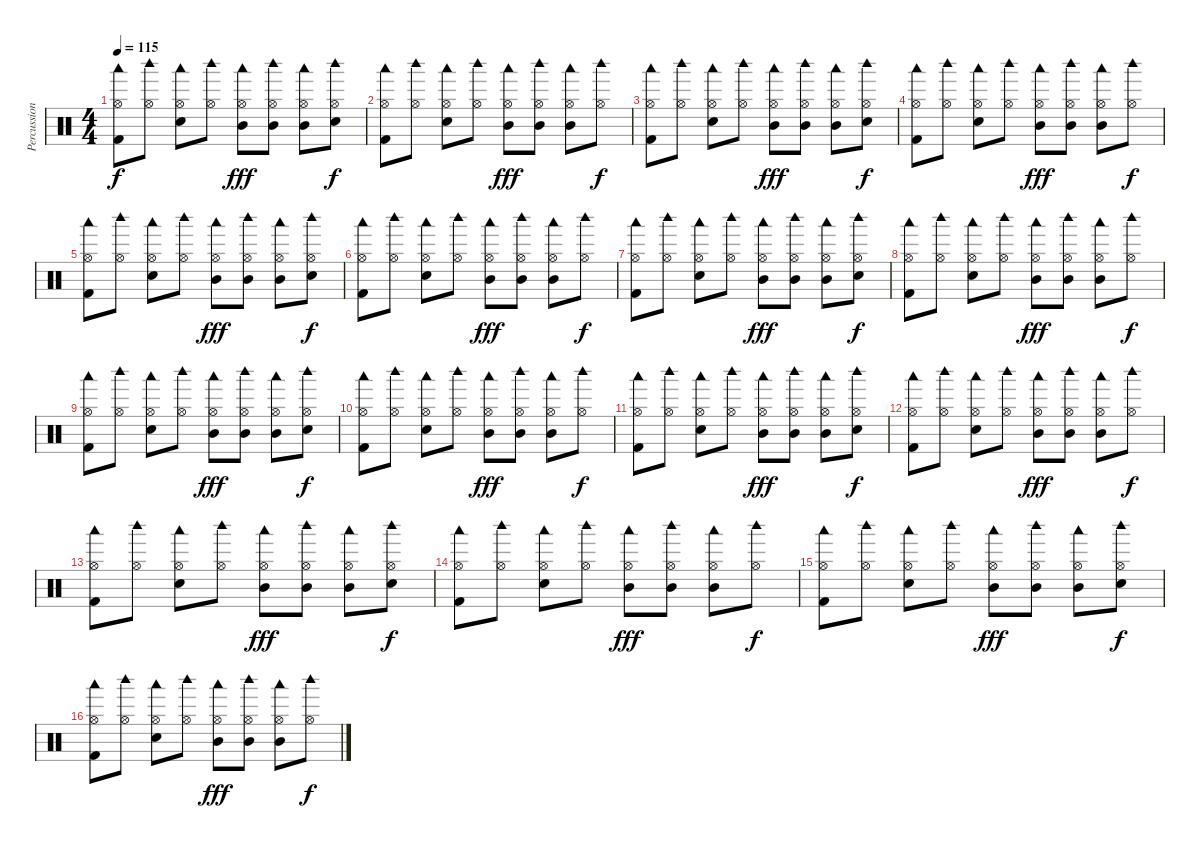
\track ("Percussions" "Percussion") {instrument percussion}
\staff {score}
\articulation defaults
\ts (4 4)
\tempo 115
\clef neutral
\ks c
("Hi-Hat (open)" "Kick (hit) 2" "Woodblock low (hit)").8{dy f} ("Hi-Hat (open)" "Woodblock high (hit)").8 ("Hi-Hat (open)" "Electric Snare (hit)" "Woodblock low (hit)").8 ("Hi-Hat (open)" "Woodblock high (hit)").8 ("Hi-Hat (open)" "Mid Tom (hit)" "Woodblock low (hit)").8{dy fff} ("Hi-Hat (open)" "Mid Tom (hit)" "Woodblock high (hit)").8 ("Hi-Hat (open)" "Mid Tom (hit)" "Woodblock low (hit)").8 ("Hi-Hat (open)" "Electric Snare (hit)" "Woodblock high (hit)").8{dy f} |
("Hi-Hat (open)" "Kick (hit) 2" "Woodblock low (hit)").8 ("Hi-Hat (open)" "Woodblock high (hit)").8 ("Hi-Hat (open)" "Electric Snare (hit)" "Woodblock low (hit)").8 ("Hi-Hat (open)" "Woodblock high (hit)").8 ("Hi-Hat (open)" "Mid Tom (hit)" "Woodblock low (hit)").8{dy fff} ("Hi-Hat (open)" "Mid Tom (hit)" "Woodblock high (hit)").8 ("Hi-Hat (open)" "Mid Tom (hit)" "Woodblock low (hit)").8 ("Hi-Hat (open)" "Woodblock high (hit)").8{dy f} |
("Hi-Hat (open)" "Kick (hit) 2" "Woodblock low (hit)").8 ("Hi-Hat (open)" "Woodblock high (hit)").8 ("Hi-Hat (open)" "Electric Snare (hit)" "Woodblock low (hit)").8 ("Hi-Hat (open)" "Woodblock high (hit)").8 ("Hi-Hat (open)" "Mid Tom (hit)" "Woodblock low (hit)").8{dy fff} ("Hi-Hat (open)" "Mid Tom (hit)" "Woodblock high (hit)").8 ("Hi-Hat (open)" "Mid Tom (hit)" "Woodblock low (hit)").8 ("Hi-Hat (open)" "Electric Snare (hit)" "Woodblock high (hit)").8{dy f} |
("Hi-Hat (open)" "Kick (hit) 2" "Woodblock low (hit)").8 ("Hi-Hat (open)" "Woodblock high (hit)").8 ("Hi-Hat (open)" "Electric Snare (hit)" "Woodblock low (hit)").8 ("Hi-Hat (open)" "Woodblock high (hit)").8 ("Hi-Hat (open)" "Mid Tom (hit)" "Woodblock low (hit)").8{dy fff} ("Hi-Hat (open)" "Mid Tom (hit)" "Woodblock high (hit)").8 ("Hi-Hat (open)" "Mid Tom (hit)" "Woodblock low (hit)").8 ("Hi-Hat (open)" "Woodblock high (hit)").8{dy f} |
("Hi-Hat (open)" "Kick (hit) 2" "Woodblock low (hit)").8 ("Hi-Hat (open)" "Woodblock high (hit)").8 ("Hi-Hat (open)" "Electric Snare (hit)" "Woodblock low (hit)").8 ("Hi-Hat (open)" "Woodblock high (hit)").8 ("Hi-Hat (open)" "Mid Tom (hit)" "Woodblock low (hit)").8{dy fff} ("Hi-Hat (open)" "Mid Tom (hit)" "Woodblock high (hit)").8 ("Hi-Hat (open)" "Mid Tom (hit)" "Woodblock low (hit)").8 ("Hi-Hat (open)" "Electric Snare (hit)" "Woodblock high (hit)").8{dy f} |
("Hi-Hat (open)" "Kick (hit) 2" "Woodblock low (hit)").8 ("Hi-Hat (open)" "Woodblock high (hit)").8 ("Hi-Hat (open)" "Electric Snare (hit)" "Woodblock low (hit)").8 ("Hi-Hat (open)" "Woodblock high (hit)").8 ("Hi-Hat (open)" "Mid Tom (hit)" "Woodblock low (hit)").8{dy fff} ("Hi-Hat (open)" "Mid Tom (hit)" "Woodblock high (hit)").8 ("Hi-Hat (open)" "Mid Tom (hit)" "Woodblock low (hit)").8 ("Hi-Hat (open)" "Woodblock high (hit)").8{dy f} |
("Hi-Hat (open)" "Kick (hit) 2" "Woodblock low (hit)").8 ("Hi-Hat (open)" "Woodblock high (hit)").8 ("Hi-Hat (open)" "Electric Snare (hit)" "Woodblock low (hit)").8 ("Hi-Hat (open)" "Woodblock high (hit)").8 ("Hi-Hat (open)" "Mid Tom (hit)" "Woodblock low (hit)").8{dy fff} ("Hi-Hat (open)" "Mid Tom (hit)" "Woodblock high (hit)").8 ("Hi-Hat (open)" "Mid Tom (hit)" "Woodblock low (hit)").8 ("Hi-Hat (open)" "Electric Snare (hit)" "Woodblock high (hit)").8{dy f} |
("Hi-Hat (open)" "Kick (hit) 2" "Woodblock low (hit)").8 ("Hi-Hat (open)" "Woodblock high (hit)").8 ("Hi-Hat (open)" "Electric Snare (hit)" "Woodblock low (hit)").8 ("Hi-Hat (open)" "Woodblock high (hit)").8 ("Hi-Hat (open)" "Mid Tom (hit)" "Woodblock low (hit)").8{dy fff} ("Hi-Hat (open)" "Mid Tom (hit)" "Woodblock high (hit)").8 ("Hi-Hat (open)" "Mid Tom (hit)" "Woodblock low (hit)").8 ("Hi-Hat (open)" "Woodblock high (hit)").8{dy f} |
("Hi-Hat (open)" "Kick (hit) 2" "Woodblock low (hit)").8 ("Hi-Hat (open)" "Woodblock high (hit)").8 ("Hi-Hat (open)" "Electric Snare (hit)" "Woodblock low (hit)").8 ("Hi-Hat (open)" "Woodblock high (hit)").8 ("Hi-Hat (open)" "Mid Tom (hit)" "Woodblock low (hit)").8{dy fff} ("Hi-Hat (open)" "Mid Tom (hit)" "Woodblock high (hit)").8 ("Hi-Hat (open)" "Mid Tom (hit)" "Woodblock low (hit)").8 ("Hi-Hat (open)" "Electric Snare (hit)" "Woodblock high (hit)").8{dy f} |
("Hi-Hat (open)" "Kick (hit) 2" "Woodblock low (hit)").8 ("Hi-Hat (open)" "Woodblock high (hit)").8 ("Hi-Hat (open)" "Electric Snare (hit)" "Woodblock low (hit)").8 ("Hi-Hat (open)" "Woodblock high (hit)").8 ("Hi-Hat (open)" "Mid Tom (hit)" "Woodblock low (hit)").8{dy fff} ("Hi-Hat (open)" "Mid Tom (hit)" "Woodblock high (hit)").8 ("Hi-Hat (open)" "Mid Tom (hit)" "Woodblock low (hit)").8 ("Hi-Hat (open)" "Woodblock high (hit)").8{dy f} |
("Hi-Hat (open)" "Kick (hit) 2" "Woodblock low (hit)").8 ("Hi-Hat (open)" "Woodblock high (hit)").8 ("Hi-Hat (open)" "Electric Snare (hit)" "Woodblock low (hit)").8 ("Hi-Hat (open)" "Woodblock high (hit)").8 ("Hi-Hat (open)" "Mid Tom (hit)" "Woodblock low (hit)").8{dy fff} ("Hi-Hat (open)" "Mid Tom (hit)" "Woodblock high (hit)").8 ("Hi-Hat (open)" "Mid Tom (hit)" "Woodblock low (hit)").8 ("Hi-Hat (open)" "Electric Snare (hit)" "Woodblock high (hit)").8{dy f} |
("Hi-Hat (open)" "Kick (hit) 2" "Woodblock low (hit)").8 ("Hi-Hat (open)" "Woodblock high (hit)").8 ("Hi-Hat (open)" "Electric Snare (hit)" "Woodblock low (hit)").8 ("Hi-Hat (open)" "Woodblock high (hit)").8 ("Hi-Hat (open)" "Mid Tom (hit)" "Woodblock low (hit)").8{dy fff} ("Hi-Hat (open)" "Mid Tom (hit)" "Woodblock high (hit)").8 ("Hi-Hat (open)" "Mid Tom (hit)" "Woodblock low (hit)").8 ("Hi-Hat (open)" "Woodblock high (hit)").8{dy f} |
("Hi-Hat (open)" "Kick (hit) 2" "Woodblock low (hit)").8 ("Hi-Hat (open)" "Woodblock high (hit)").8 ("Hi-Hat (open)" "Electric Snare (hit)" "Woodblock low (hit)").8 ("Hi-Hat (open)" "Woodblock high (hit)").8 ("Hi-Hat (open)" "Mid Tom (hit)" "Woodblock low (hit)").8{dy fff} ("Hi-Hat (open)" "Mid Tom (hit)" "Woodblock high (hit)").8 ("Hi-Hat (open)" "Mid Tom (hit)" "Woodblock low (hit)").8 ("Hi-Hat (open)" "Electric Snare (hit)" "Woodblock high (hit)").8{dy f} |
("Hi-Hat (open)" "Kick (hit) 2" "Woodblock low (hit)").8 ("Hi-Hat (open)" "Woodblock high (hit)").8 ("Hi-Hat (open)" "Electric Snare (hit)" "Woodblock low (hit)").8 ("Hi-Hat (open)" "Woodblock high (hit)").8 ("Hi-Hat (open)" "Mid Tom (hit)" "Woodblock low (hit)").8{dy fff} ("Hi-Hat (open)" "Mid Tom (hit)" "Woodblock high (hit)").8 ("Hi-Hat (open)" "Mid Tom (hit)" "Woodblock low (hit)").8 ("Hi-Hat (open)" "Woodblock high (hit)").8{dy f} |
("Hi-Hat (open)" "Kick (hit) 2" "Woodblock low (hit)").8 ("Hi-Hat (open)" "Woodblock high (hit)").8 ("Hi-Hat (open)" "Electric Snare (hit)" "Woodblock low (hit)").8 ("Hi-Hat (open)" "Woodblock high (hit)").8 ("Hi-Hat (open)" "Mid Tom (hit)" "Woodblock low (hit)").8{dy fff} ("Hi-Hat (open)" "Mid Tom (hit)" "Woodblock high (hit)").8 ("Hi-Hat (open)" "Mid Tom (hit)" "Woodblock low (hit)").8 ("Hi-Hat (open)" "Electric Snare (hit)" "Woodblock high (hit)").8{dy f} |
("Hi-Hat (open)" "Kick (hit) 2" "Woodblock low (hit)").8 ("Hi-Hat (open)" "Woodblock high (hit)").8 ("Hi-Hat (open)" "Electric Snare (hit)" "Woodblock low (hit)").8 ("Hi-Hat (open)" "Woodblock high (hit)").8 ("Hi-Hat (open)" "Mid Tom (hit)" "Woodblock low (hit)").8{dy fff} ("Hi-Hat (open)" "Mid Tom (hit)" "Woodblock high (hit)").8 ("Hi-Hat (open)" "Mid Tom (hit)" "Woodblock low (hit)").8 ("Hi-Hat (open)" "Woodblock high (hit)").8{dy f}
